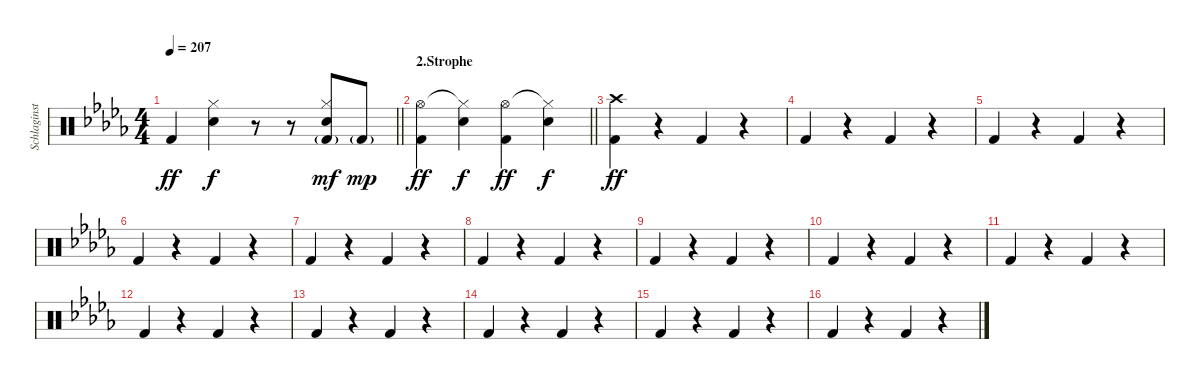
\track ("Schlaginstrumente - Auswahl" "Schlaginst") {instrument percussion}
\staff {score}
\articulation defaults
\ts (4 4)
\tempo 207
\clef neutral
\barLineRight lightlight
\ks bbminor "Kick (hit) 2".4{dy ff}
("Hi-Hat (closed)" "Snare (hit) 2").4{dy f} r.8 r.8 ("Hi-Hat (closed)" "Snare (hit) 2" "Kick (hit) 2"{g}).8{dy mf} "Kick (hit) 2"{g}.8{dy mp} |
\section ("" "2.Strophe")
\barLineRight lightlight
("Hi-Hat (open)" "Kick (hit) 2").4{dy ff} ("Hi-Hat (closed)"{t} "Snare (hit) 2").4{dy f} ("Hi-Hat (open)" "Kick (hit) 2").4{dy ff} ("Hi-Hat (closed)"{t} "Snare (hit) 2").4{dy f} |
("Crash high (hit)" "Kick (hit) 2").4{dy ff} r.4 "Kick (hit) 2".4 r.4 |
"Kick (hit) 2".4 r.4 "Kick (hit) 2".4 r.4 |
"Kick (hit) 2".4 r.4 "Kick (hit) 2".4 r.4 |
"Kick (hit) 2".4 r.4 "Kick (hit) 2".4 r.4 |
"Kick (hit) 2".4 r.4 "Kick (hit) 2".4 r.4 |
"Kick (hit) 2".4 r.4 "Kick (hit) 2".4 r.4 |
"Kick (hit) 2".4 r.4 "Kick (hit) 2".4 r.4 |
"Kick (hit) 2".4 r.4 "Kick (hit) 2".4 r.4 |
"Kick (hit) 2".4 r.4 "Kick (hit) 2".4 r.4 |
"Kick (hit) 2".4 r.4 "Kick (hit) 2".4 r.4 |
"Kick (hit) 2".4 r.4 "Kick (hit) 2".4 r.4 |
"Kick (hit) 2".4 r.4 "Kick (hit) 2".4 r.4 |
"Kick (hit) 2".4 r.4 "Kick (hit) 2".4 r.4 |
"Kick (hit) 2".4 r.4 "Kick (hit) 2".4 r.4
